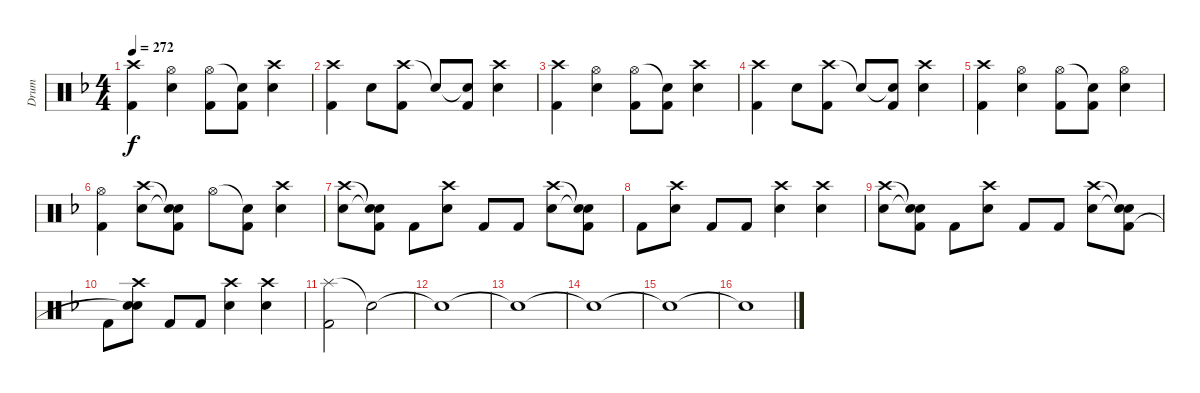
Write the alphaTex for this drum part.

\track ("Drum" "Drum") {instrument percussion}
\staff {score}
\articulation defaults
\ts (4 4)
\tempo 272
\clef neutral
\ks f
("Crash high (hit)" "Kick (hit) 2").4{dy f} ("Hi-Hat (open)" "Electric Snare (hit)").4 ("Hi-Hat (open)" "Kick (hit) 2").8 ("Snare (hit)"{t} "Kick (hit) 2").8 ("Crash high (hit)" "Electric Snare (hit)").4 |
("Crash high (hit)" "Kick (hit) 2").4 "Electric Snare (hit)".8 ("Crash high (hit)" "Kick (hit) 2").8 "Snare (hit)"{t}.8 ("Snare (hit)"{t} "Kick (hit) 2").8 ("Crash high (hit)" "Electric Snare (hit)").4 |
("Crash high (hit)" "Kick (hit) 2").4 ("Hi-Hat (open)" "Electric Snare (hit)").4 ("Hi-Hat (open)" "Kick (hit) 2").8 ("Snare (hit)"{t} "Kick (hit) 2").8 ("Crash high (hit)" "Electric Snare (hit)").4 |
("Crash high (hit)" "Kick (hit) 2").4 "Electric Snare (hit)".8 ("Crash high (hit)" "Kick (hit) 2").8 "Snare (hit)"{t}.8 ("Snare (hit)"{t} "Kick (hit) 2").8 ("Crash high (hit)" "Electric Snare (hit)").4 |
("Crash high (hit)" "Kick (hit) 2").4 ("Hi-Hat (open)" "Electric Snare (hit)").4 ("Hi-Hat (open)" "Kick (hit) 2").8 ("Snare (hit)"{t} "Kick (hit) 2").8 ("Hi-Hat (open)" "Electric Snare (hit)").4 |
("Hi-Hat (open)" "Kick (hit) 2").4 ("Crash high (hit)" "Electric Snare (hit)").8 ("Snare (hit)"{t} "Snare (hit)"{t} "Kick (hit) 2").8 "Hi-Hat (open)".8 ("Snare (hit)"{t} "Kick (hit) 2").8 ("Crash high (hit)" "Electric Snare (hit)").4 |
("Crash high (hit)" "Electric Snare (hit)").8 ("Snare (hit)"{t} "Snare (hit)"{t} "Kick (hit) 2").8 "Kick (hit) 2".8 ("Crash high (hit)" "Electric Snare (hit)").8 "Kick (hit) 2".8 "Kick (hit) 2".8 ("Crash high (hit)" "Electric Snare (hit)").8 ("Snare (hit)"{t} "Snare (hit)"{t} "Kick (hit) 2").8 |
"Kick (hit) 2".8 ("Crash high (hit)" "Electric Snare (hit)").8 "Kick (hit) 2".8 "Kick (hit) 2".8 ("Crash high (hit)" "Electric Snare (hit)").4 ("Crash high (hit)" "Electric Snare (hit)").4 |
("Crash high (hit)" "Electric Snare (hit)").8 ("Snare (hit)"{t} "Snare (hit)"{t} "Kick (hit) 2").8 "Kick (hit) 2".8 ("Crash high (hit)" "Electric Snare (hit)").8 "Kick (hit) 2".8 "Kick (hit) 2".8 ("Crash high (hit)" "Electric Snare (hit)").8 ("Snare (hit)"{t} "Snare (hit)"{t} "Kick (hit) 2").8 |
"Kick (hit) 2".8 ("Crash high (hit)" "Electric Snare (hit)" "Snare (hit)"{t}).8 "Kick (hit) 2".8 "Kick (hit) 2".8 ("Crash high (hit)" "Electric Snare (hit)").4 ("Crash high (hit)" "Electric Snare (hit)").4 |
("Splash (hit)" "Kick (hit) 2").2 "Snare (hit)"{t}.2 |
"Snare (hit)"{t}.1 |
"Snare (hit)"{t}.1 |
"Snare (hit)"{t}.1 |
"Snare (hit)"{t}.1 |
"Snare (hit)"{t}.1
